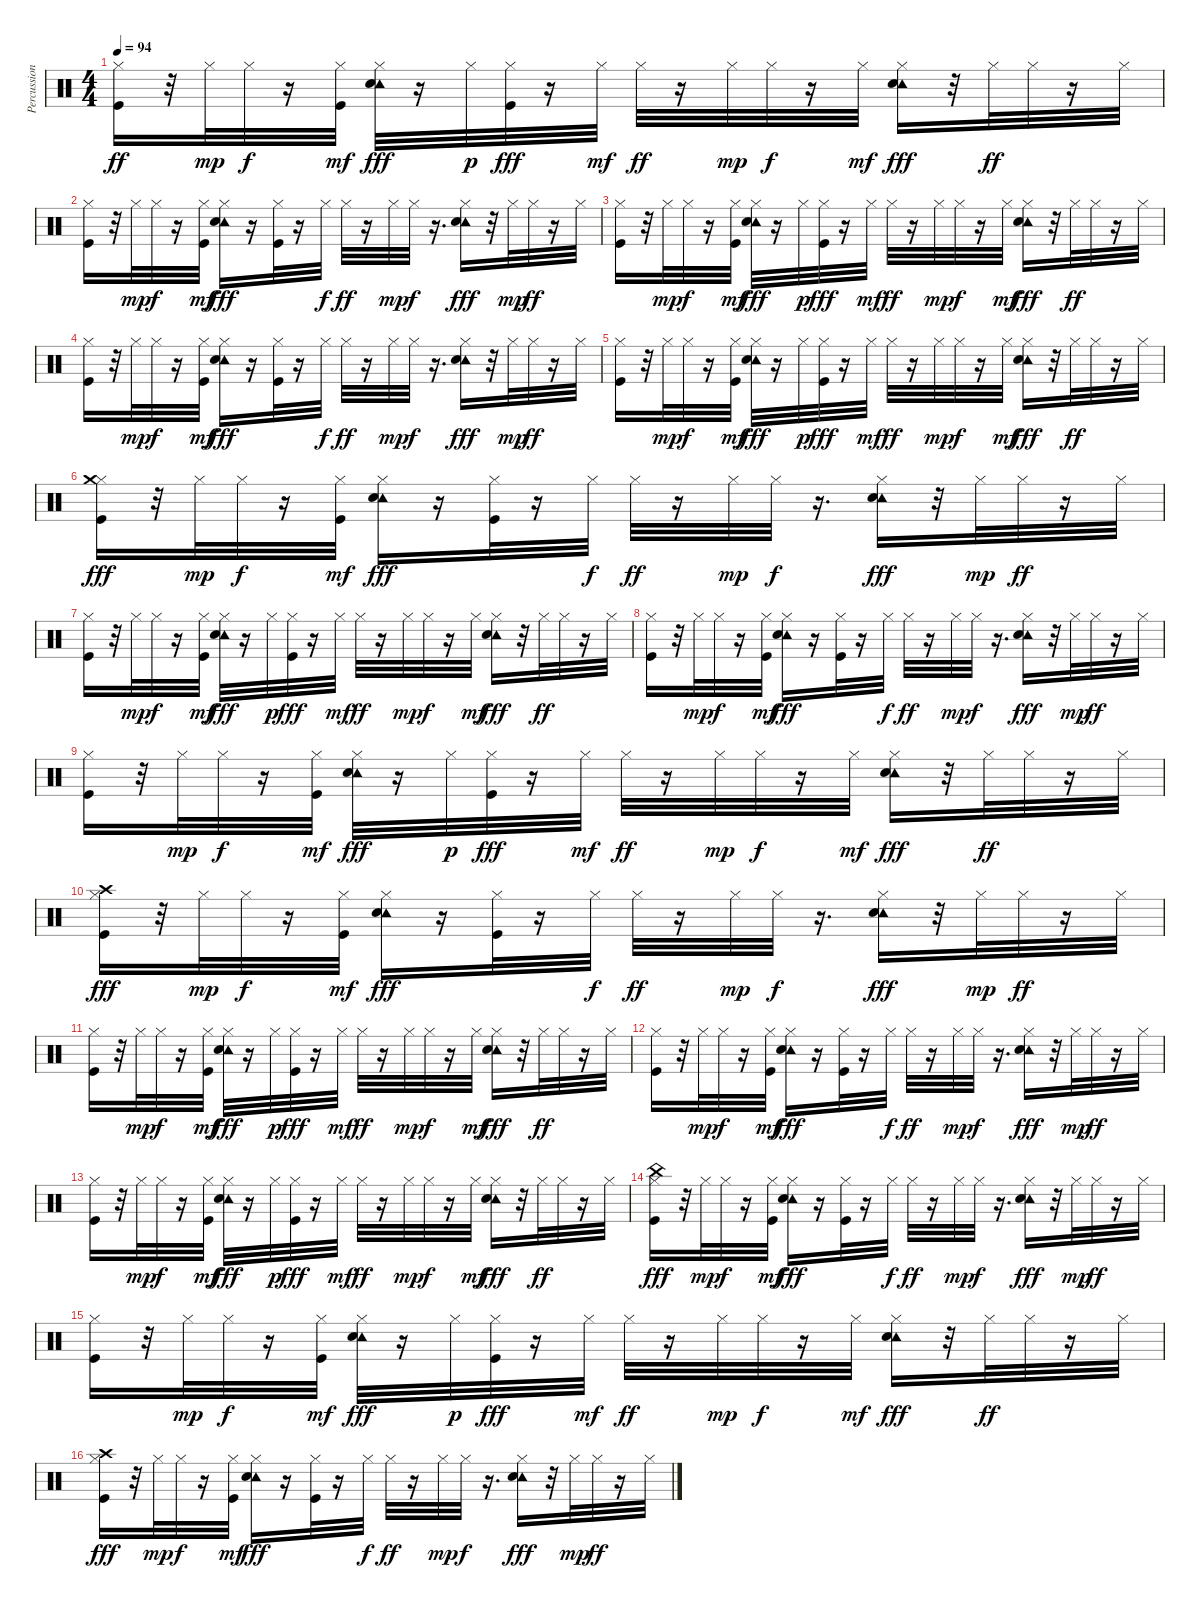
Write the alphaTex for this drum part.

\track ("Percussion" "Percussion") {instrument percussion}
\staff {score}
\articulation defaults
\ts (4 4)
\tempo 94
\clef neutral
\ks c
("Kick (hit)" "Hi-Hat (closed)").16{dy ff} r.32 "Hi-Hat (closed)".32{dy mp} "Hi-Hat (closed)".32{dy f} r.16 ("Kick (hit)" "Hi-Hat (closed)").32{dy mf} ("Hi-Hat (closed)" "Tambourine (hit)" "Snare (hit) 2").32{dy fff} r.16 "Hi-Hat (closed)".32{dy p} ("Kick (hit)" "Hi-Hat (closed)").32{dy fff} r.16 "Hi-Hat (closed)".32{dy mf} "Hi-Hat (closed)".32{dy ff} r.16 "Hi-Hat (closed)".32{dy mp} "Hi-Hat (closed)".32{dy f} r.16 "Hi-Hat (closed)".32{dy mf} ("Hi-Hat (closed)" "Tambourine (hit)" "Snare (hit) 2").16{dy fff} r.32 "Hi-Hat (closed)".32{dy ff} "Hi-Hat (closed)".32 r.16 "Hi-Hat (closed)".32 |
("Kick (hit)" "Hi-Hat (closed)").16 r.32 "Hi-Hat (closed)".32{dy mp} "Hi-Hat (closed)".32{dy f} r.16 ("Kick (hit)" "Hi-Hat (closed)").32{dy mf} ("Hi-Hat (closed)" "Tambourine (hit)" "Snare (hit) 2").16{dy fff} r.16 ("Kick (hit)" "Hi-Hat (closed)").32 r.16 "Hi-Hat (closed)".32{dy f} "Hi-Hat (closed)".32{dy ff} r.16 "Hi-Hat (closed)".32{dy mp} "Hi-Hat (closed)".32{dy f} r.16{d} ("Hi-Hat (closed)" "Tambourine (hit)" "Snare (hit) 2").16{dy fff} r.32 "Hi-Hat (closed)".32{dy mp} "Hi-Hat (closed)".32{dy ff} r.16 "Hi-Hat (closed)".32 |
("Kick (hit)" "Hi-Hat (closed)").16 r.32 "Hi-Hat (closed)".32{dy mp} "Hi-Hat (closed)".32{dy f} r.16 ("Kick (hit)" "Hi-Hat (closed)").32{dy mf} ("Hi-Hat (closed)" "Tambourine (hit)" "Snare (hit) 2").32{dy fff} r.16 "Hi-Hat (closed)".32{dy p} ("Kick (hit)" "Hi-Hat (closed)").32{dy fff} r.16 "Hi-Hat (closed)".32{dy mf} "Hi-Hat (closed)".32{dy ff} r.16 "Hi-Hat (closed)".32{dy mp} "Hi-Hat (closed)".32{dy f} r.16 "Hi-Hat (closed)".32{dy mf} ("Hi-Hat (closed)" "Tambourine (hit)" "Snare (hit) 2").16{dy fff} r.32 "Hi-Hat (closed)".32{dy ff} "Hi-Hat (closed)".32 r.16 "Hi-Hat (closed)".32 |
("Kick (hit)" "Hi-Hat (closed)").16 r.32 "Hi-Hat (closed)".32{dy mp} "Hi-Hat (closed)".32{dy f} r.16 ("Kick (hit)" "Hi-Hat (closed)").32{dy mf} ("Hi-Hat (closed)" "Tambourine (hit)" "Snare (hit) 2").16{dy fff} r.16 ("Kick (hit)" "Hi-Hat (closed)").32 r.16 "Hi-Hat (closed)".32{dy f} "Hi-Hat (closed)".32{dy ff} r.16 "Hi-Hat (closed)".32{dy mp} "Hi-Hat (closed)".32{dy f} r.16{d} ("Hi-Hat (closed)" "Tambourine (hit)" "Snare (hit) 2").16{dy fff} r.32 "Hi-Hat (closed)".32{dy mp} "Hi-Hat (closed)".32{dy ff} r.16 "Hi-Hat (closed)".32 |
("Kick (hit)" "Hi-Hat (closed)").16 r.32 "Hi-Hat (closed)".32{dy mp} "Hi-Hat (closed)".32{dy f} r.16 ("Kick (hit)" "Hi-Hat (closed)").32{dy mf} ("Hi-Hat (closed)" "Tambourine (hit)" "Snare (hit) 2").32{dy fff} r.16 "Hi-Hat (closed)".32{dy p} ("Kick (hit)" "Hi-Hat (closed)").32{dy fff} r.16 "Hi-Hat (closed)".32{dy mf} "Hi-Hat (closed)".32{dy ff} r.16 "Hi-Hat (closed)".32{dy mp} "Hi-Hat (closed)".32{dy f} r.16 "Hi-Hat (closed)".32{dy mf} ("Hi-Hat (closed)" "Tambourine (hit)" "Snare (hit) 2").16{dy fff} r.32 "Hi-Hat (closed)".32{dy ff} "Hi-Hat (closed)".32 r.16 "Hi-Hat (closed)".32 |
("Kick (hit)" "Hi-Hat (closed)" "Crash medium (hit)").16{dy fff} r.32 "Hi-Hat (closed)".32{dy mp} "Hi-Hat (closed)".32{dy f} r.16 ("Kick (hit)" "Hi-Hat (closed)").32{dy mf} ("Hi-Hat (closed)" "Tambourine (hit)" "Snare (hit) 2").16{dy fff} r.16 ("Kick (hit)" "Hi-Hat (closed)").32 r.16 "Hi-Hat (closed)".32{dy f} "Hi-Hat (closed)".32{dy ff} r.16 "Hi-Hat (closed)".32{dy mp} "Hi-Hat (closed)".32{dy f} r.16{d} ("Hi-Hat (closed)" "Tambourine (hit)" "Snare (hit) 2").16{dy fff} r.32 "Hi-Hat (closed)".32{dy mp} "Hi-Hat (closed)".32{dy ff} r.16 "Hi-Hat (closed)".32 |
("Kick (hit)" "Hi-Hat (closed)").16 r.32 "Hi-Hat (closed)".32{dy mp} "Hi-Hat (closed)".32{dy f} r.16 ("Kick (hit)" "Hi-Hat (closed)").32{dy mf} ("Hi-Hat (closed)" "Tambourine (hit)" "Snare (hit) 2").32{dy fff} r.16 "Hi-Hat (closed)".32{dy p} ("Kick (hit)" "Hi-Hat (closed)").32{dy fff} r.16 "Hi-Hat (closed)".32{dy mf} "Hi-Hat (closed)".32{dy ff} r.16 "Hi-Hat (closed)".32{dy mp} "Hi-Hat (closed)".32{dy f} r.16 "Hi-Hat (closed)".32{dy mf} ("Hi-Hat (closed)" "Tambourine (hit)" "Snare (hit) 2").16{dy fff} r.32 "Hi-Hat (closed)".32{dy ff} "Hi-Hat (closed)".32 r.16 "Hi-Hat (closed)".32 |
("Kick (hit)" "Hi-Hat (closed)").16 r.32 "Hi-Hat (closed)".32{dy mp} "Hi-Hat (closed)".32{dy f} r.16 ("Kick (hit)" "Hi-Hat (closed)").32{dy mf} ("Hi-Hat (closed)" "Tambourine (hit)" "Snare (hit) 2").16{dy fff} r.16 ("Kick (hit)" "Hi-Hat (closed)").32 r.16 "Hi-Hat (closed)".32{dy f} "Hi-Hat (closed)".32{dy ff} r.16 "Hi-Hat (closed)".32{dy mp} "Hi-Hat (closed)".32{dy f} r.16{d} ("Hi-Hat (closed)" "Tambourine (hit)" "Snare (hit) 2").16{dy fff} r.32 "Hi-Hat (closed)".32{dy mp} "Hi-Hat (closed)".32{dy ff} r.16 "Hi-Hat (closed)".32 |
("Kick (hit)" "Hi-Hat (closed)").16 r.32 "Hi-Hat (closed)".32{dy mp} "Hi-Hat (closed)".32{dy f} r.16 ("Kick (hit)" "Hi-Hat (closed)").32{dy mf} ("Hi-Hat (closed)" "Tambourine (hit)" "Snare (hit) 2").32{dy fff} r.16 "Hi-Hat (closed)".32{dy p} ("Kick (hit)" "Hi-Hat (closed)").32{dy fff} r.16 "Hi-Hat (closed)".32{dy mf} "Hi-Hat (closed)".32{dy ff} r.16 "Hi-Hat (closed)".32{dy mp} "Hi-Hat (closed)".32{dy f} r.16 "Hi-Hat (closed)".32{dy mf} ("Hi-Hat (closed)" "Tambourine (hit)" "Snare (hit) 2").16{dy fff} r.32 "Hi-Hat (closed)".32{dy ff} "Hi-Hat (closed)".32 r.16 "Hi-Hat (closed)".32 |
("Kick (hit)" "Hi-Hat (closed)" "Crash high (hit)").16{dy fff} r.32 "Hi-Hat (closed)".32{dy mp} "Hi-Hat (closed)".32{dy f} r.16 ("Kick (hit)" "Hi-Hat (closed)").32{dy mf} ("Hi-Hat (closed)" "Tambourine (hit)" "Snare (hit) 2").16{dy fff} r.16 ("Kick (hit)" "Hi-Hat (closed)").32 r.16 "Hi-Hat (closed)".32{dy f} "Hi-Hat (closed)".32{dy ff} r.16 "Hi-Hat (closed)".32{dy mp} "Hi-Hat (closed)".32{dy f} r.16{d} ("Hi-Hat (closed)" "Tambourine (hit)" "Snare (hit) 2").16{dy fff} r.32 "Hi-Hat (closed)".32{dy mp} "Hi-Hat (closed)".32{dy ff} r.16 "Hi-Hat (closed)".32 |
("Kick (hit)" "Hi-Hat (closed)").16 r.32 "Hi-Hat (closed)".32{dy mp} "Hi-Hat (closed)".32{dy f} r.16 ("Kick (hit)" "Hi-Hat (closed)").32{dy mf} ("Hi-Hat (closed)" "Tambourine (hit)" "Snare (hit) 2").32{dy fff} r.16 "Hi-Hat (closed)".32{dy p} ("Kick (hit)" "Hi-Hat (closed)").32{dy fff} r.16 "Hi-Hat (closed)".32{dy mf} "Hi-Hat (closed)".32{dy ff} r.16 "Hi-Hat (closed)".32{dy mp} "Hi-Hat (closed)".32{dy f} r.16 "Hi-Hat (closed)".32{dy mf} ("Hi-Hat (closed)" "Tambourine (hit)" "Snare (hit) 2").16{dy fff} r.32 "Hi-Hat (closed)".32{dy ff} "Hi-Hat (closed)".32 r.16 "Hi-Hat (closed)".32 |
("Kick (hit)" "Hi-Hat (closed)").16 r.32 "Hi-Hat (closed)".32{dy mp} "Hi-Hat (closed)".32{dy f} r.16 ("Kick (hit)" "Hi-Hat (closed)").32{dy mf} ("Hi-Hat (closed)" "Tambourine (hit)" "Snare (hit) 2").16{dy fff} r.16 ("Kick (hit)" "Hi-Hat (closed)").32 r.16 "Hi-Hat (closed)".32{dy f} "Hi-Hat (closed)".32{dy ff} r.16 "Hi-Hat (closed)".32{dy mp} "Hi-Hat (closed)".32{dy f} r.16{d} ("Hi-Hat (closed)" "Tambourine (hit)" "Snare (hit) 2").16{dy fff} r.32 "Hi-Hat (closed)".32{dy mp} "Hi-Hat (closed)".32{dy ff} r.16 "Hi-Hat (closed)".32 |
("Kick (hit)" "Hi-Hat (closed)").16 r.32 "Hi-Hat (closed)".32{dy mp} "Hi-Hat (closed)".32{dy f} r.16 ("Kick (hit)" "Hi-Hat (closed)").32{dy mf} ("Hi-Hat (closed)" "Tambourine (hit)" "Snare (hit) 2").32{dy fff} r.16 "Hi-Hat (closed)".32{dy p} ("Kick (hit)" "Hi-Hat (closed)").32{dy fff} r.16 "Hi-Hat (closed)".32{dy mf} "Hi-Hat (closed)".32{dy ff} r.16 "Hi-Hat (closed)".32{dy mp} "Hi-Hat (closed)".32{dy f} r.16 "Hi-Hat (closed)".32{dy mf} ("Hi-Hat (closed)" "Tambourine (hit)" "Snare (hit) 2").16{dy fff} r.32 "Hi-Hat (closed)".32{dy ff} "Hi-Hat (closed)".32 r.16 "Hi-Hat (closed)".32 |
("Kick (hit)" "Hi-Hat (closed)" "China (hit)").16{dy fff} r.32 "Hi-Hat (closed)".32{dy mp} "Hi-Hat (closed)".32{dy f} r.16 ("Kick (hit)" "Hi-Hat (closed)").32{dy mf} ("Hi-Hat (closed)" "Tambourine (hit)" "Snare (hit) 2").16{dy fff} r.16 ("Kick (hit)" "Hi-Hat (closed)").32 r.16 "Hi-Hat (closed)".32{dy f} "Hi-Hat (closed)".32{dy ff} r.16 "Hi-Hat (closed)".32{dy mp} "Hi-Hat (closed)".32{dy f} r.16{d} ("Hi-Hat (closed)" "Tambourine (hit)" "Snare (hit) 2").16{dy fff} r.32 "Hi-Hat (closed)".32{dy mp} "Hi-Hat (closed)".32{dy ff} r.16 "Hi-Hat (closed)".32 |
("Kick (hit)" "Hi-Hat (closed)").16 r.32 "Hi-Hat (closed)".32{dy mp} "Hi-Hat (closed)".32{dy f} r.16 ("Kick (hit)" "Hi-Hat (closed)").32{dy mf} ("Hi-Hat (closed)" "Tambourine (hit)" "Snare (hit) 2").32{dy fff} r.16 "Hi-Hat (closed)".32{dy p} ("Kick (hit)" "Hi-Hat (closed)").32{dy fff} r.16 "Hi-Hat (closed)".32{dy mf} "Hi-Hat (closed)".32{dy ff} r.16 "Hi-Hat (closed)".32{dy mp} "Hi-Hat (closed)".32{dy f} r.16 "Hi-Hat (closed)".32{dy mf} ("Hi-Hat (closed)" "Tambourine (hit)" "Snare (hit) 2").16{dy fff} r.32 "Hi-Hat (closed)".32{dy ff} "Hi-Hat (closed)".32 r.16 "Hi-Hat (closed)".32 |
("Kick (hit)" "Hi-Hat (closed)" "Crash high (hit)").16{dy fff} r.32 "Hi-Hat (closed)".32{dy mp} "Hi-Hat (closed)".32{dy f} r.16 ("Kick (hit)" "Hi-Hat (closed)").32{dy mf} ("Hi-Hat (closed)" "Tambourine (hit)" "Snare (hit) 2").16{dy fff} r.16 ("Kick (hit)" "Hi-Hat (closed)").32 r.16 "Hi-Hat (closed)".32{dy f} "Hi-Hat (closed)".32{dy ff} r.16 "Hi-Hat (closed)".32{dy mp} "Hi-Hat (closed)".32{dy f} r.16{d} ("Hi-Hat (closed)" "Tambourine (hit)" "Snare (hit) 2").16{dy fff} r.32 "Hi-Hat (closed)".32{dy mp} "Hi-Hat (closed)".32{dy ff} r.16 "Hi-Hat (closed)".32
